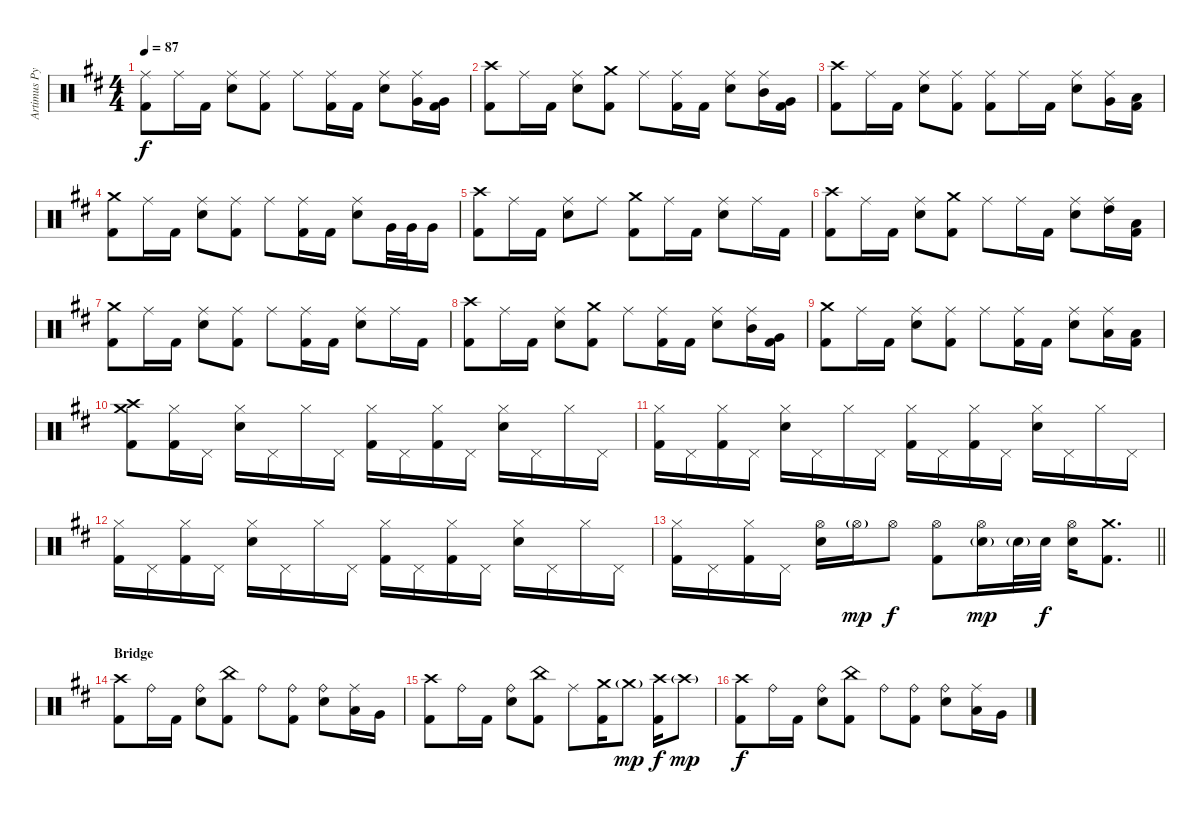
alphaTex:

\track ("Artimus Pyle - Drums" "Artimus Py") {instrument percussion}
\staff {score}
\articulation defaults
\ts (4 4)
\tempo 87
\clef neutral
\ks d
("Ride (middle)" "Kick (hit) 2").8{dy f} "Ride (middle)".16 "Kick (hit) 2".16 ("Ride (middle)" "Snare (hit) 2").8 ("Ride (middle)" "Kick (hit) 2").8 "Ride (middle)".8 ("Ride (middle)" "Kick (hit) 2").16 "Kick (hit) 2".16 ("Ride (middle)" "Snare (hit) 2").8 ("Ride (middle)" "Very Low Tom (hit)").16 ("Very Low Tom (hit)" "Kick (hit) 2").16 |
("Crash high (hit)" "Kick (hit) 2").8 "Ride (middle)".16 "Kick (hit) 2".16 ("Ride (middle)" "Snare (hit) 2").8 ("Crash medium (hit)" "Kick (hit) 2").8 "Ride (middle)".8 ("Ride (middle)" "Kick (hit) 2").16 "Kick (hit) 2".16 ("Ride (middle)" "Snare (hit) 2").8 ("Ride (middle)" "Mid Tom (hit)").16 ("Very Low Tom (hit)" "Kick (hit) 2").16 |
("Crash high (hit)" "Kick (hit) 2").8 "Ride (middle)".16 "Kick (hit) 2".16 ("Ride (middle)" "Snare (hit) 2").8 ("Ride (middle)" "Kick (hit) 2").8 ("Ride (middle)" "Kick (hit) 2").8 "Ride (middle)".16 "Kick (hit) 2".16 ("Ride (middle)" "Snare (hit) 2").8 ("Ride (middle)" "Very Low Tom (hit)").16 ("Low Floor Tom (hit)" "Kick (hit) 2").16 |
("Crash medium (hit)" "Kick (hit) 2").8 "Ride (middle)".16 "Kick (hit) 2".16 ("Ride (middle)" "Snare (hit) 2").8 ("Ride (middle)" "Kick (hit) 2").8 "Ride (middle)".8 ("Ride (middle)" "Kick (hit) 2").16 "Kick (hit) 2".16 ("Ride (middle)" "Snare (hit) 2").8 "Very Low Tom (hit)".32 "Very Low Tom (hit)".32 "Very Low Tom (hit)".16 |
("Crash high (hit)" "Kick (hit) 2").8 "Ride (middle)".16 "Kick (hit) 2".16 ("Ride (middle)" "Snare (hit) 2").8 "Ride (middle)".8 ("Crash medium (hit)" "Kick (hit) 2").8 "Ride (middle)".16 "Kick (hit) 2".16 ("Ride (middle)" "Snare (hit) 2").8 "Ride (middle)".16 "Kick (hit) 2".16 |
("Crash high (hit)" "Kick (hit) 2").8 "Ride (middle)".16 "Kick (hit) 2".16 ("Ride (middle)" "Snare (hit) 2").8 ("Crash medium (hit)" "Kick (hit) 2").8 "Ride (middle)".8 "Ride (middle)".16 "Kick (hit) 2".16 ("Ride (middle)" "Snare (hit) 2").8 ("Ride (middle)" "High Tom (hit)").16 ("Low Floor Tom (hit)" "Kick (hit) 2").16 |
("Crash medium (hit)" "Kick (hit) 2").8 "Ride (middle)".16 "Kick (hit) 2".16 ("Ride (middle)" "Snare (hit) 2").8 ("Ride (middle)" "Kick (hit) 2").8 "Ride (middle)".8 ("Ride (middle)" "Kick (hit) 2").16 "Kick (hit) 2".16 ("Ride (middle)" "Snare (hit) 2").8 "Ride (middle)".16 "Kick (hit) 2".16 |
("Crash high (hit)" "Kick (hit) 2").8 "Ride (middle)".16 "Kick (hit) 2".16 ("Ride (middle)" "Snare (hit) 2").8 ("Crash medium (hit)" "Kick (hit) 2").8 "Ride (middle)".8 ("Ride (middle)" "Kick (hit) 2").16 "Kick (hit) 2".16 ("Ride (middle)" "Snare (hit) 2").8 ("Ride (middle)" "Mid Tom (hit)").16 ("Very Low Tom (hit)" "Kick (hit) 2").16 |
("Crash medium (hit)" "Kick (hit) 2").8 "Ride (middle)".16 "Kick (hit) 2".16 ("Ride (middle)" "Snare (hit) 2").8 ("Ride (middle)" "Kick (hit) 2").8 "Ride (middle)".8 ("Ride (middle)" "Kick (hit) 2").16 "Kick (hit) 2".16 ("Ride (middle)" "Snare (hit) 2").8 ("Ride (middle)" "Low Floor Tom (hit)").16 ("Low Floor Tom (hit)" "Kick (hit) 2").16 |
("Crash medium (hit)" "Crash high (hit)" "Kick (hit) 2").8 ("Hi-Hat (closed)" "Kick (hit) 2").16 "Pedal Hi-Hat (hit)".16 ("Snare (hit) 2" "Hi-Hat (closed)").16 "Pedal Hi-Hat (hit)".16 "Hi-Hat (closed)".16 "Pedal Hi-Hat (hit)".16 ("Hi-Hat (closed)" "Kick (hit) 2").16 "Pedal Hi-Hat (hit)".16 ("Hi-Hat (closed)" "Kick (hit) 2").16 "Pedal Hi-Hat (hit)".16 ("Snare (hit) 2" "Hi-Hat (closed)").16 "Pedal Hi-Hat (hit)".16 "Hi-Hat (closed)".16 "Pedal Hi-Hat (hit)".16 |
("Hi-Hat (closed)" "Kick (hit) 2").16 "Pedal Hi-Hat (hit)".16 ("Hi-Hat (closed)" "Kick (hit) 2").16 "Pedal Hi-Hat (hit)".16 ("Snare (hit) 2" "Hi-Hat (closed)").16 "Pedal Hi-Hat (hit)".16 "Hi-Hat (closed)".16 "Pedal Hi-Hat (hit)".16 ("Hi-Hat (closed)" "Kick (hit) 2").16 "Pedal Hi-Hat (hit)".16 ("Hi-Hat (closed)" "Kick (hit) 2").16 "Pedal Hi-Hat (hit)".16 ("Snare (hit) 2" "Hi-Hat (closed)").16 "Pedal Hi-Hat (hit)".16 "Hi-Hat (closed)".16 "Pedal Hi-Hat (hit)".16 |
("Hi-Hat (closed)" "Kick (hit) 2").16 "Pedal Hi-Hat (hit)".16 ("Hi-Hat (closed)" "Kick (hit) 2").16 "Pedal Hi-Hat (hit)".16 ("Snare (hit) 2" "Hi-Hat (closed)").16 "Pedal Hi-Hat (hit)".16 "Hi-Hat (closed)".16 "Pedal Hi-Hat (hit)".16 ("Hi-Hat (closed)" "Kick (hit) 2").16 "Pedal Hi-Hat (hit)".16 ("Hi-Hat (closed)" "Kick (hit) 2").16 "Pedal Hi-Hat (hit)".16 ("Snare (hit) 2" "Hi-Hat (closed)").16 "Pedal Hi-Hat (hit)".16 "Hi-Hat (closed)".16 "Pedal Hi-Hat (hit)".16 |
\barLineRight lightlight
("Hi-Hat (closed)" "Kick (hit) 2").16 "Pedal Hi-Hat (hit)".16 ("Hi-Hat (closed)" "Kick (hit) 2").16 "Pedal Hi-Hat (hit)".16 ("Snare (hit) 2" "Hi-Hat (open)").16 "Hi-Hat (open)"{g}.16{dy mp} "Hi-Hat (open)".8{dy f} ("Hi-Hat (open)" "Kick (hit) 2").8 ("Snare (hit) 2"{g} "Hi-Hat (open)").16{dy mp} "Snare (hit) 2"{g}.32 "Snare (hit) 2".32{dy f} ("Snare (hit) 2" "Hi-Hat (open)").16 ("Crash medium (hit)" "Kick (hit) 2").8{d} |
\section ("" "Bridge")
("Crash high (hit)" "Kick (hit) 2").8 "Ride (bell)".16 "Kick (hit) 2".16 ("Ride (bell)" "Snare (hit) 2").8 ("China (hit)" "Kick (hit) 2").8 "Ride (bell)".8 ("Ride (bell)" "Kick (hit) 2").8 ("Ride (bell)" "Snare (hit) 2").8 ("Ride (middle)" "Low Tom (hit)").16 "Very Low Tom (hit)".16 |
("Crash high (hit)" "Kick (hit) 2").8 "Ride (bell)".16 "Kick (hit) 2".16 ("Ride (bell)" "Snare (hit) 2").8 ("China (hit)" "Kick (hit) 2").8 "Ride (middle)".8 ("Crash medium (hit)" "Kick (hit) 2").16 "Crash medium (hit)"{g}.8{dy mp} ("Crash high (hit)" "Kick (hit) 2").16{dy f} "Crash high (hit)"{g}.8{dy mp} |
("Crash high (hit)" "Kick (hit) 2").8{dy f} "Ride (bell)".16 "Kick (hit) 2".16 ("Ride (bell)" "Snare (hit) 2").8 ("China (hit)" "Kick (hit) 2").8 "Ride (bell)".8 ("Ride (bell)" "Kick (hit) 2").8 ("Ride (bell)" "Snare (hit) 2").8 ("Ride (middle)" "Low Tom (hit)").16 "Very Low Tom (hit)".16
